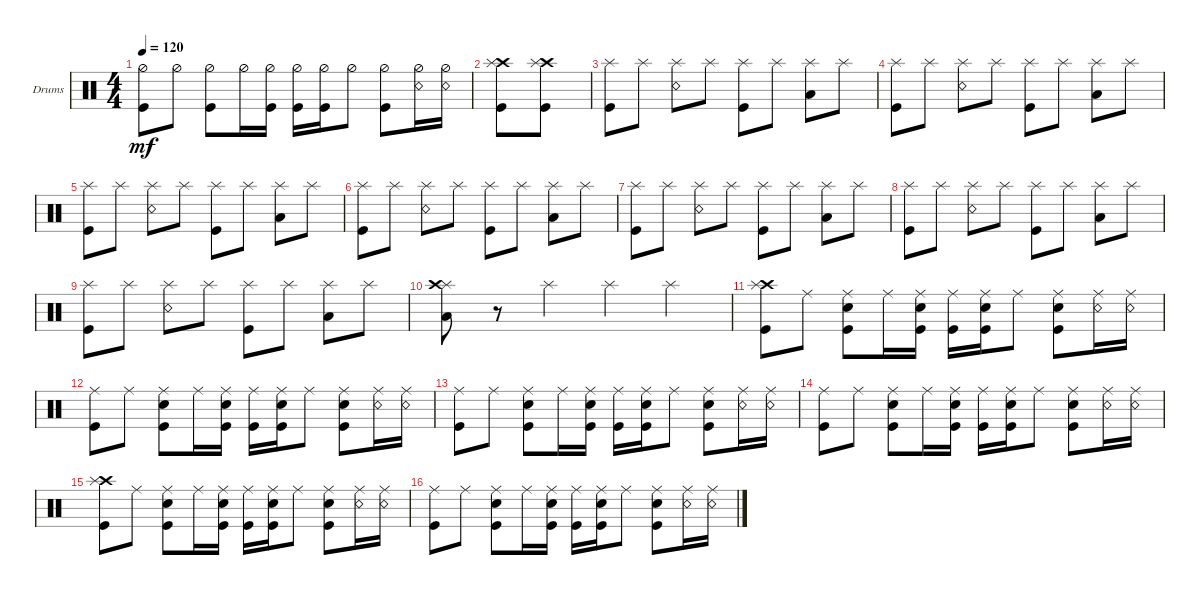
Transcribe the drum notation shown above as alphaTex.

\defaultSystemsLayout 4
\bracketExtendMode groupsimilarinstruments
\firstSystemTrackNameOrientation horizontal
\otherSystemsTrackNameOrientation horizontal
\track ("Нюта" "Drums") {instrument percussion}
\staff {score}
\articulation defaults
\ts (4 4)
\tempo 120
\clef neutral
\ks c
("Kick (hit)" "Hi-Hat (half)").8{dy mf} "Hi-Hat (half)".8 ("Kick (hit)" "Hi-Hat (half)").8 "Hi-Hat (half)".16 ("Kick (hit)" "Hi-Hat (half)").16 ("Kick (hit)" "Hi-Hat (half)").16 ("Kick (hit)" "Hi-Hat (half)").16 "Hi-Hat (half)".8 ("Kick (hit)" "Hi-Hat (half)").8 ("Snare (rim shot)" "Hi-Hat (half)").16 ("Snare (rim shot)" "Hi-Hat (half)").16 |
("Kick (hit)" "Crash high (hit)" "Splash (hit)").8 ("Kick (hit)" "Crash high (hit)" "Splash (hit)").8 |
("Kick (hit)" "Splash (hit)").8 "Splash (hit)".8 ("Splash (hit)" "Snare (rim shot)").8 "Splash (hit)".8 ("Splash (hit)" "Kick (hit)").8 "Splash (hit)".8 ("Low Tom (hit)" "Splash (hit)").8 "Splash (hit)".8 |
("Kick (hit)" "Splash (hit)").8 "Splash (hit)".8 ("Splash (hit)" "Snare (rim shot)").8 "Splash (hit)".8 ("Splash (hit)" "Kick (hit)").8 "Splash (hit)".8 ("Low Tom (hit)" "Splash (hit)").8 "Splash (hit)".8 |
("Kick (hit)" "Splash (hit)").8 "Splash (hit)".8 ("Splash (hit)" "Snare (rim shot)").8 "Splash (hit)".8 ("Splash (hit)" "Kick (hit)").8 "Splash (hit)".8 ("Low Tom (hit)" "Splash (hit)").8 "Splash (hit)".8 |
("Kick (hit)" "Splash (hit)").8 "Splash (hit)".8 ("Splash (hit)" "Snare (rim shot)").8 "Splash (hit)".8 ("Splash (hit)" "Kick (hit)").8 "Splash (hit)".8 ("Low Tom (hit)" "Splash (hit)").8 "Splash (hit)".8 |
("Kick (hit)" "Splash (hit)").8 "Splash (hit)".8 ("Splash (hit)" "Snare (rim shot)").8 "Splash (hit)".8 ("Splash (hit)" "Kick (hit)").8 "Splash (hit)".8 ("Low Tom (hit)" "Splash (hit)").8 "Splash (hit)".8 |
("Kick (hit)" "Splash (hit)").8 "Splash (hit)".8 ("Splash (hit)" "Snare (rim shot)").8 "Splash (hit)".8 ("Splash (hit)" "Kick (hit)").8 "Splash (hit)".8 ("Low Tom (hit)" "Splash (hit)").8 "Splash (hit)".8 |
("Kick (hit)" "Splash (hit)").8 "Splash (hit)".8 ("Splash (hit)" "Snare (rim shot)").8 "Splash (hit)".8 ("Splash (hit)" "Kick (hit)").8 "Splash (hit)".8 ("Low Tom (hit)" "Splash (hit)").8 "Splash (hit)".8 |
("Low Tom (hit)" "Splash (hit)" "Crash high (hit)").8 r.8 "Splash (hit)".4 "Splash (hit)".4 "Splash (hit)".4 |
("Crash high (hit)" "Kick (hit)" "Splash (hit)").8 "Ride (middle)".8 ("Ride (middle)" "Kick (hit)" "Snare (hit) 2").8 "Ride (middle)".16 ("Ride (middle)" "Kick (hit)" "Snare (hit) 2").16 ("Ride (middle)" "Kick (hit)").16 ("Ride (middle)" "Kick (hit)" "Snare (hit) 2").16 "Ride (middle)".8 ("Snare (hit) 2" "Ride (middle)" "Kick (hit)").8 ("Snare (rim shot)" "Ride (middle)").16 ("Snare (rim shot)" "Ride (middle)").16 |
("Kick (hit)" "Ride (middle)").8 "Ride (middle)".8 ("Ride (middle)" "Kick (hit)" "Snare (hit) 2").8 "Ride (middle)".16 ("Ride (middle)" "Kick (hit)" "Snare (hit) 2").16 ("Ride (middle)" "Kick (hit)").16 ("Ride (middle)" "Kick (hit)" "Snare (hit) 2").16 "Ride (middle)".8 ("Snare (hit) 2" "Ride (middle)" "Kick (hit)").8 ("Snare (rim shot)" "Ride (middle)").16 ("Snare (rim shot)" "Ride (middle)").16 |
("Kick (hit)" "Ride (middle)").8 "Ride (middle)".8 ("Ride (middle)" "Kick (hit)" "Snare (hit) 2").8 "Ride (middle)".16 ("Ride (middle)" "Kick (hit)" "Snare (hit) 2").16 ("Ride (middle)" "Kick (hit)").16 ("Ride (middle)" "Kick (hit)" "Snare (hit) 2").16 "Ride (middle)".8 ("Snare (hit) 2" "Ride (middle)" "Kick (hit)").8 ("Snare (rim shot)" "Ride (middle)").16 ("Snare (rim shot)" "Ride (middle)").16 |
("Kick (hit)" "Ride (middle)").8 "Ride (middle)".8 ("Ride (middle)" "Kick (hit)" "Snare (hit) 2").8 "Ride (middle)".16 ("Ride (middle)" "Kick (hit)" "Snare (hit) 2").16 ("Ride (middle)" "Kick (hit)").16 ("Ride (middle)" "Kick (hit)" "Snare (hit) 2").16 "Ride (middle)".8 ("Snare (hit) 2" "Ride (middle)" "Kick (hit)").8 ("Snare (rim shot)" "Ride (middle)").16 ("Snare (rim shot)" "Ride (middle)").16 |
("Crash high (hit)" "Kick (hit)" "Splash (hit)").8 "Ride (middle)".8 ("Ride (middle)" "Kick (hit)" "Snare (hit) 2").8 "Ride (middle)".16 ("Ride (middle)" "Kick (hit)" "Snare (hit) 2").16 ("Ride (middle)" "Kick (hit)").16 ("Ride (middle)" "Kick (hit)" "Snare (hit) 2").16 "Ride (middle)".8 ("Snare (hit) 2" "Ride (middle)" "Kick (hit)").8 ("Snare (rim shot)" "Ride (middle)").16 ("Snare (rim shot)" "Ride (middle)").16 |
("Kick (hit)" "Ride (middle)").8 "Ride (middle)".8 ("Ride (middle)" "Kick (hit)" "Snare (hit) 2").8 "Ride (middle)".16 ("Ride (middle)" "Kick (hit)" "Snare (hit) 2").16 ("Ride (middle)" "Kick (hit)").16 ("Ride (middle)" "Kick (hit)" "Snare (hit) 2").16 "Ride (middle)".8 ("Snare (hit) 2" "Ride (middle)" "Kick (hit)").8 ("Snare (rim shot)" "Ride (middle)").16 ("Snare (rim shot)" "Ride (middle)").16
